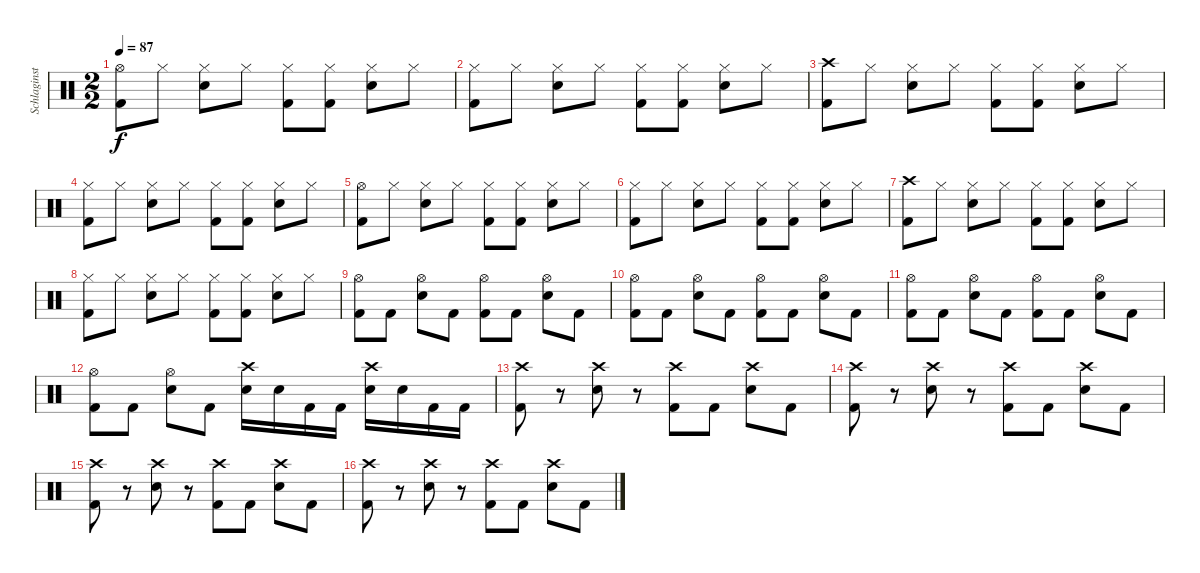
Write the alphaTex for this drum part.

\track ("Schlaginstrumente - Auswahl" "Schlaginst") {instrument percussion}
\staff {score}
\articulation defaults
\ts (2 2)
\tempo 87
\clef neutral
\ks c
("Hi-Hat (open)" "Kick (hit) 2").8{dy f} "Hi-Hat (closed)".8 ("Hi-Hat (closed)" "Electric Snare (hit)").8 "Hi-Hat (closed)".8 ("Hi-Hat (closed)" "Kick (hit) 2").8 ("Hi-Hat (closed)" "Kick (hit) 2").8 ("Hi-Hat (closed)" "Electric Snare (hit)").8 "Hi-Hat (closed)".8 |
("Hi-Hat (closed)" "Kick (hit) 2").8 "Hi-Hat (closed)".8 ("Hi-Hat (closed)" "Electric Snare (hit)").8 "Hi-Hat (closed)".8 ("Hi-Hat (closed)" "Kick (hit) 2").8 ("Hi-Hat (closed)" "Kick (hit) 2").8 ("Hi-Hat (closed)" "Electric Snare (hit)").8 "Hi-Hat (closed)".8 |
("Crash high (hit)" "Kick (hit) 2").8 "Hi-Hat (closed)".8 ("Hi-Hat (closed)" "Electric Snare (hit)").8 "Hi-Hat (closed)".8 ("Hi-Hat (closed)" "Kick (hit) 2").8 ("Hi-Hat (closed)" "Kick (hit) 2").8 ("Hi-Hat (closed)" "Electric Snare (hit)").8 "Hi-Hat (closed)".8 |
("Hi-Hat (closed)" "Kick (hit) 2").8 "Hi-Hat (closed)".8 ("Hi-Hat (closed)" "Electric Snare (hit)").8 "Hi-Hat (closed)".8 ("Hi-Hat (closed)" "Kick (hit) 2").8 ("Hi-Hat (closed)" "Kick (hit) 2").8 ("Hi-Hat (closed)" "Electric Snare (hit)").8 "Hi-Hat (closed)".8 |
("Hi-Hat (open)" "Kick (hit) 2").8 "Hi-Hat (closed)".8 ("Hi-Hat (closed)" "Electric Snare (hit)").8 "Hi-Hat (closed)".8 ("Hi-Hat (closed)" "Kick (hit) 2").8 ("Hi-Hat (closed)" "Kick (hit) 2").8 ("Hi-Hat (closed)" "Electric Snare (hit)").8 "Hi-Hat (closed)".8 |
("Hi-Hat (closed)" "Kick (hit) 2").8 "Hi-Hat (closed)".8 ("Hi-Hat (closed)" "Electric Snare (hit)").8 "Hi-Hat (closed)".8 ("Hi-Hat (closed)" "Kick (hit) 2").8 ("Hi-Hat (closed)" "Kick (hit) 2").8 ("Hi-Hat (closed)" "Electric Snare (hit)").8 "Hi-Hat (closed)".8 |
("Crash high (hit)" "Kick (hit) 2").8 "Hi-Hat (closed)".8 ("Hi-Hat (closed)" "Electric Snare (hit)").8 "Hi-Hat (closed)".8 ("Hi-Hat (closed)" "Kick (hit) 2").8 ("Hi-Hat (closed)" "Kick (hit) 2").8 ("Hi-Hat (closed)" "Electric Snare (hit)").8 "Hi-Hat (closed)".8 |
("Hi-Hat (closed)" "Kick (hit) 2").8 "Hi-Hat (closed)".8 ("Hi-Hat (closed)" "Electric Snare (hit)").8 "Hi-Hat (closed)".8 ("Hi-Hat (closed)" "Kick (hit) 2").8 ("Hi-Hat (closed)" "Kick (hit) 2").8 ("Hi-Hat (closed)" "Electric Snare (hit)").8 "Hi-Hat (closed)".8 |
("Hi-Hat (open)" "Kick (hit) 2").8 "Kick (hit) 2".8 ("Hi-Hat (open)" "Electric Snare (hit)").8 "Kick (hit) 2".8 ("Hi-Hat (open)" "Kick (hit) 2").8 "Kick (hit) 2".8 ("Hi-Hat (open)" "Electric Snare (hit)").8 "Kick (hit) 2".8 |
("Hi-Hat (open)" "Kick (hit) 2").8 "Kick (hit) 2".8 ("Hi-Hat (open)" "Electric Snare (hit)").8 "Kick (hit) 2".8 ("Hi-Hat (open)" "Kick (hit) 2").8 "Kick (hit) 2".8 ("Hi-Hat (open)" "Electric Snare (hit)").8 "Kick (hit) 2".8 |
("Hi-Hat (open)" "Kick (hit) 2").8 "Kick (hit) 2".8 ("Hi-Hat (open)" "Electric Snare (hit)").8 "Kick (hit) 2".8 ("Hi-Hat (open)" "Kick (hit) 2").8 "Kick (hit) 2".8 ("Hi-Hat (open)" "Electric Snare (hit)").8 "Kick (hit) 2".8 |
("Hi-Hat (open)" "Kick (hit) 2").8 "Kick (hit) 2".8 ("Hi-Hat (open)" "Electric Snare (hit)").8 "Kick (hit) 2".8 ("Crash high (hit)" "Electric Snare (hit)").16 "Electric Snare (hit)".16 "Kick (hit) 2".16 "Kick (hit) 2".16 ("Crash high (hit)" "Electric Snare (hit)").16 "Electric Snare (hit)".16 "Kick (hit) 2".16 "Kick (hit) 2".16 |
("Crash high (hit)" "Kick (hit) 2").8 r.8 ("Crash high (hit)" "Electric Snare (hit)").8 r.8 ("Crash high (hit)" "Kick (hit) 2").8 "Kick (hit) 2".8 ("Crash high (hit)" "Electric Snare (hit)").8 "Kick (hit) 2".8 |
("Crash high (hit)" "Kick (hit) 2").8 r.8 ("Crash high (hit)" "Electric Snare (hit)").8 r.8 ("Crash high (hit)" "Kick (hit) 2").8 "Kick (hit) 2".8 ("Crash high (hit)" "Electric Snare (hit)").8 "Kick (hit) 2".8 |
("Crash high (hit)" "Kick (hit) 2").8 r.8 ("Crash high (hit)" "Electric Snare (hit)").8 r.8 ("Crash high (hit)" "Kick (hit) 2").8 "Kick (hit) 2".8 ("Crash high (hit)" "Electric Snare (hit)").8 "Kick (hit) 2".8 |
("Crash high (hit)" "Kick (hit) 2").8 r.8 ("Crash high (hit)" "Electric Snare (hit)").8 r.8 ("Crash high (hit)" "Kick (hit) 2").8 "Kick (hit) 2".8 ("Crash high (hit)" "Electric Snare (hit)").8 "Kick (hit) 2".8
